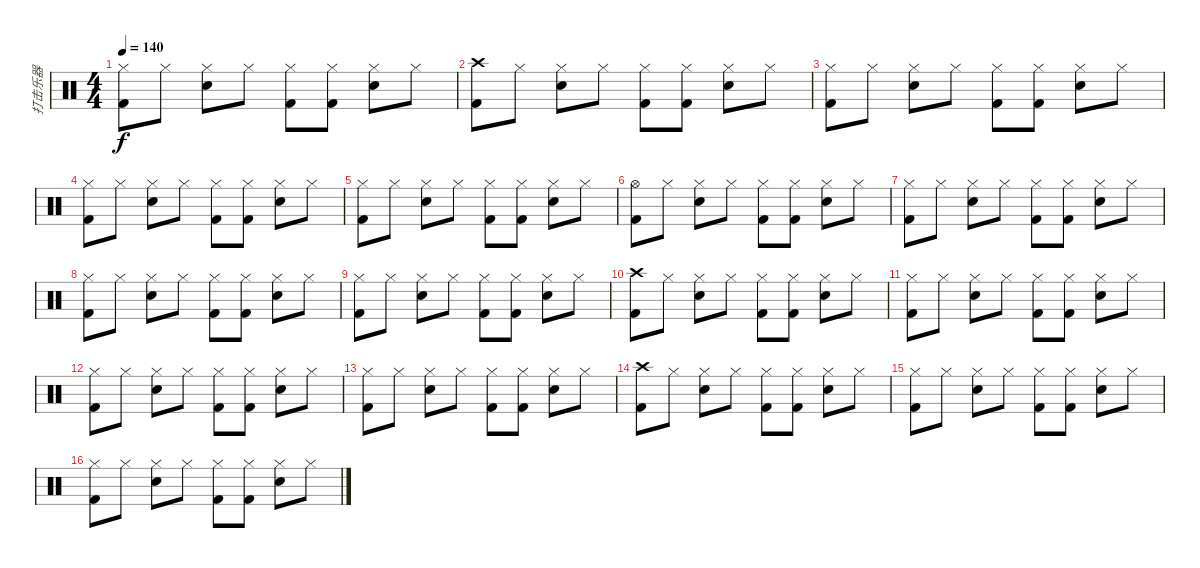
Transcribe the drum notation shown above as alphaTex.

\track ("打击乐器" "打击乐器") {instrument percussion}
\staff {score}
\articulation defaults
\ts (4 4)
\tempo 140
\clef neutral
\ks c
("Hi-Hat (closed)" "Kick (hit) 2").8{dy f} "Hi-Hat (closed)".8 ("Hi-Hat (closed)" "Electric Snare (hit)").8 "Hi-Hat (closed)".8 ("Hi-Hat (closed)" "Kick (hit) 2").8 ("Hi-Hat (closed)" "Kick (hit) 2").8 ("Hi-Hat (closed)" "Electric Snare (hit)").8 "Hi-Hat (closed)".8 |
("Crash high (hit)" "Kick (hit) 2").8 "Hi-Hat (closed)".8 ("Hi-Hat (closed)" "Electric Snare (hit)").8 "Hi-Hat (closed)".8 ("Hi-Hat (closed)" "Kick (hit) 2").8 ("Hi-Hat (closed)" "Kick (hit) 2").8 ("Hi-Hat (closed)" "Electric Snare (hit)").8 "Hi-Hat (closed)".8 |
("Hi-Hat (closed)" "Kick (hit) 2").8 "Hi-Hat (closed)".8 ("Hi-Hat (closed)" "Electric Snare (hit)").8 "Hi-Hat (closed)".8 ("Hi-Hat (closed)" "Kick (hit) 2").8 ("Hi-Hat (closed)" "Kick (hit) 2").8 ("Hi-Hat (closed)" "Electric Snare (hit)").8 "Hi-Hat (closed)".8 |
("Hi-Hat (closed)" "Kick (hit) 2").8 "Hi-Hat (closed)".8 ("Hi-Hat (closed)" "Electric Snare (hit)").8 "Hi-Hat (closed)".8 ("Hi-Hat (closed)" "Kick (hit) 2").8 ("Hi-Hat (closed)" "Kick (hit) 2").8 ("Hi-Hat (closed)" "Electric Snare (hit)").8 "Hi-Hat (closed)".8 |
("Hi-Hat (closed)" "Kick (hit) 2").8 "Hi-Hat (closed)".8 ("Hi-Hat (closed)" "Electric Snare (hit)").8 "Hi-Hat (closed)".8 ("Hi-Hat (closed)" "Kick (hit) 2").8 ("Hi-Hat (closed)" "Kick (hit) 2").8 ("Hi-Hat (closed)" "Electric Snare (hit)").8 "Hi-Hat (closed)".8 |
("Hi-Hat (open)" "Kick (hit) 2").8 "Hi-Hat (closed)".8 ("Hi-Hat (closed)" "Electric Snare (hit)").8 "Hi-Hat (closed)".8 ("Hi-Hat (closed)" "Kick (hit) 2").8 ("Hi-Hat (closed)" "Kick (hit) 2").8 ("Hi-Hat (closed)" "Electric Snare (hit)").8 "Hi-Hat (closed)".8 |
("Hi-Hat (closed)" "Kick (hit) 2").8 "Hi-Hat (closed)".8 ("Hi-Hat (closed)" "Electric Snare (hit)").8 "Hi-Hat (closed)".8 ("Hi-Hat (closed)" "Kick (hit) 2").8 ("Hi-Hat (closed)" "Kick (hit) 2").8 ("Hi-Hat (closed)" "Electric Snare (hit)").8 "Hi-Hat (closed)".8 |
("Hi-Hat (closed)" "Kick (hit) 2").8 "Hi-Hat (closed)".8 ("Hi-Hat (closed)" "Electric Snare (hit)").8 "Hi-Hat (closed)".8 ("Hi-Hat (closed)" "Kick (hit) 2").8 ("Hi-Hat (closed)" "Kick (hit) 2").8 ("Hi-Hat (closed)" "Electric Snare (hit)").8 "Hi-Hat (closed)".8 |
("Hi-Hat (closed)" "Kick (hit) 2").8 "Hi-Hat (closed)".8 ("Hi-Hat (closed)" "Electric Snare (hit)").8 "Hi-Hat (closed)".8 ("Hi-Hat (closed)" "Kick (hit) 2").8 ("Hi-Hat (closed)" "Kick (hit) 2").8 ("Hi-Hat (closed)" "Electric Snare (hit)").8 "Hi-Hat (closed)".8 |
("Crash high (hit)" "Kick (hit) 2").8 "Hi-Hat (closed)".8 ("Hi-Hat (closed)" "Electric Snare (hit)").8 "Hi-Hat (closed)".8 ("Hi-Hat (closed)" "Kick (hit) 2").8 ("Hi-Hat (closed)" "Kick (hit) 2").8 ("Hi-Hat (closed)" "Electric Snare (hit)").8 "Hi-Hat (closed)".8 |
("Hi-Hat (closed)" "Kick (hit) 2").8 "Hi-Hat (closed)".8 ("Hi-Hat (closed)" "Electric Snare (hit)").8 "Hi-Hat (closed)".8 ("Hi-Hat (closed)" "Kick (hit) 2").8 ("Hi-Hat (closed)" "Kick (hit) 2").8 ("Hi-Hat (closed)" "Electric Snare (hit)").8 "Hi-Hat (closed)".8 |
("Hi-Hat (closed)" "Kick (hit) 2").8 "Hi-Hat (closed)".8 ("Hi-Hat (closed)" "Electric Snare (hit)").8 "Hi-Hat (closed)".8 ("Hi-Hat (closed)" "Kick (hit) 2").8 ("Hi-Hat (closed)" "Kick (hit) 2").8 ("Hi-Hat (closed)" "Electric Snare (hit)").8 "Hi-Hat (closed)".8 |
("Hi-Hat (closed)" "Kick (hit) 2").8 "Hi-Hat (closed)".8 ("Hi-Hat (closed)" "Electric Snare (hit)").8 "Hi-Hat (closed)".8 ("Hi-Hat (closed)" "Kick (hit) 2").8 ("Hi-Hat (closed)" "Kick (hit) 2").8 ("Hi-Hat (closed)" "Electric Snare (hit)").8 "Hi-Hat (closed)".8 |
("Crash high (hit)" "Kick (hit) 2").8 "Hi-Hat (closed)".8 ("Hi-Hat (closed)" "Electric Snare (hit)").8 "Hi-Hat (closed)".8 ("Hi-Hat (closed)" "Kick (hit) 2").8 ("Hi-Hat (closed)" "Kick (hit) 2").8 ("Hi-Hat (closed)" "Electric Snare (hit)").8 "Hi-Hat (closed)".8 |
("Hi-Hat (closed)" "Kick (hit) 2").8 "Hi-Hat (closed)".8 ("Hi-Hat (closed)" "Electric Snare (hit)").8 "Hi-Hat (closed)".8 ("Hi-Hat (closed)" "Kick (hit) 2").8 ("Hi-Hat (closed)" "Kick (hit) 2").8 ("Hi-Hat (closed)" "Electric Snare (hit)").8 "Hi-Hat (closed)".8 |
("Hi-Hat (closed)" "Kick (hit) 2").8 "Hi-Hat (closed)".8 ("Hi-Hat (closed)" "Electric Snare (hit)").8 "Hi-Hat (closed)".8 ("Hi-Hat (closed)" "Kick (hit) 2").8 ("Hi-Hat (closed)" "Kick (hit) 2").8 ("Hi-Hat (closed)" "Electric Snare (hit)").8 "Hi-Hat (closed)".8
